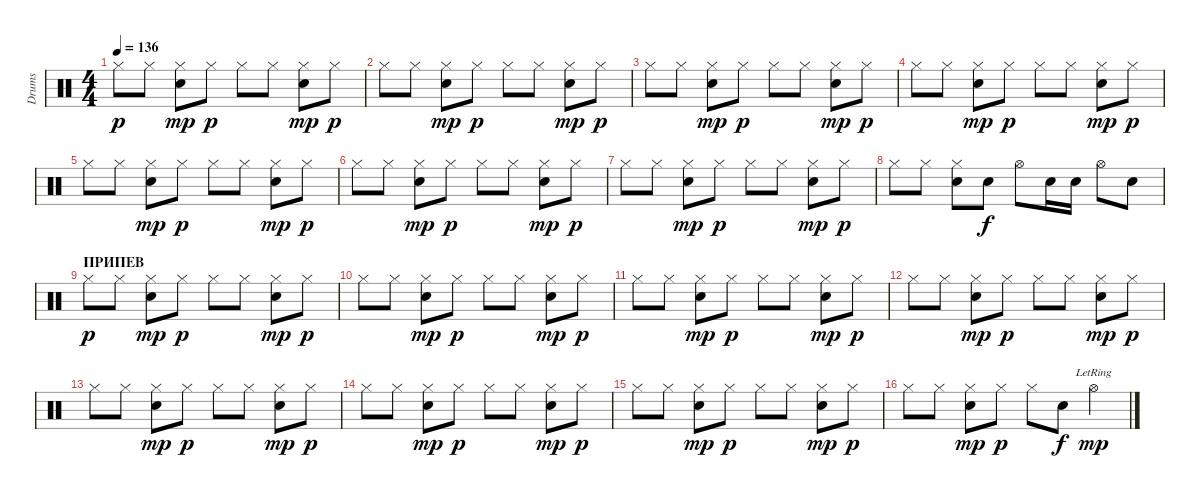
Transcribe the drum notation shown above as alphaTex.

\track ("Drums" "Drums") {instrument percussion}
\staff {score}
\articulation defaults
\ts (4 4)
\tempo 136
\clef neutral
\ks c "Hi-Hat (closed)".8{dy p} "Hi-Hat (closed)".8
("Hi-Hat (closed)" "Electric Snare (hit)").8{dy mp} "Hi-Hat (closed)".8{dy p} "Hi-Hat (closed)".8 "Hi-Hat (closed)".8 ("Hi-Hat (closed)" "Electric Snare (hit)").8{dy mp} "Hi-Hat (closed)".8{dy p} |
"Hi-Hat (closed)".8 "Hi-Hat (closed)".8 ("Hi-Hat (closed)" "Electric Snare (hit)").8{dy mp} "Hi-Hat (closed)".8{dy p} "Hi-Hat (closed)".8 "Hi-Hat (closed)".8 ("Hi-Hat (closed)" "Electric Snare (hit)").8{dy mp} "Hi-Hat (closed)".8{dy p} |
"Hi-Hat (closed)".8 "Hi-Hat (closed)".8 ("Hi-Hat (closed)" "Electric Snare (hit)").8{dy mp} "Hi-Hat (closed)".8{dy p} "Hi-Hat (closed)".8 "Hi-Hat (closed)".8 ("Hi-Hat (closed)" "Electric Snare (hit)").8{dy mp} "Hi-Hat (closed)".8{dy p} |
"Hi-Hat (closed)".8 "Hi-Hat (closed)".8 ("Hi-Hat (closed)" "Electric Snare (hit)").8{dy mp} "Hi-Hat (closed)".8{dy p} "Hi-Hat (closed)".8 "Hi-Hat (closed)".8 ("Hi-Hat (closed)" "Electric Snare (hit)").8{dy mp} "Hi-Hat (closed)".8{dy p} |
"Hi-Hat (closed)".8 "Hi-Hat (closed)".8 ("Hi-Hat (closed)" "Electric Snare (hit)").8{dy mp} "Hi-Hat (closed)".8{dy p} "Hi-Hat (closed)".8 "Hi-Hat (closed)".8 ("Hi-Hat (closed)" "Electric Snare (hit)").8{dy mp} "Hi-Hat (closed)".8{dy p} |
"Hi-Hat (closed)".8 "Hi-Hat (closed)".8 ("Hi-Hat (closed)" "Electric Snare (hit)").8{dy mp} "Hi-Hat (closed)".8{dy p} "Hi-Hat (closed)".8 "Hi-Hat (closed)".8 ("Hi-Hat (closed)" "Electric Snare (hit)").8{dy mp} "Hi-Hat (closed)".8{dy p} |
"Hi-Hat (closed)".8 "Hi-Hat (closed)".8 ("Hi-Hat (closed)" "Electric Snare (hit)").8{dy mp} "Hi-Hat (closed)".8{dy p} "Hi-Hat (closed)".8 "Hi-Hat (closed)".8 ("Hi-Hat (closed)" "Electric Snare (hit)").8{dy mp} "Hi-Hat (closed)".8{dy p} |
"Hi-Hat (closed)".8 "Hi-Hat (closed)".8 ("Hi-Hat (closed)" "Electric Snare (hit)").8 "Electric Snare (hit)".8{dy f} "Hi-Hat (open)".8 "Electric Snare (hit)".16 "Electric Snare (hit)".16 "Hi-Hat (open)".8 "Electric Snare (hit)".8 |
\section ("" "ПРИПЕВ")
"Hi-Hat (closed)".8{dy p} "Hi-Hat (closed)".8 ("Hi-Hat (closed)" "Electric Snare (hit)").8{dy mp} "Hi-Hat (closed)".8{dy p} "Hi-Hat (closed)".8 "Hi-Hat (closed)".8 ("Hi-Hat (closed)" "Electric Snare (hit)").8{dy mp} "Hi-Hat (closed)".8{dy p} |
"Hi-Hat (closed)".8 "Hi-Hat (closed)".8 ("Hi-Hat (closed)" "Electric Snare (hit)").8{dy mp} "Hi-Hat (closed)".8{dy p} "Hi-Hat (closed)".8 "Hi-Hat (closed)".8 ("Hi-Hat (closed)" "Electric Snare (hit)").8{dy mp} "Hi-Hat (closed)".8{dy p} |
"Hi-Hat (closed)".8 "Hi-Hat (closed)".8 ("Hi-Hat (closed)" "Electric Snare (hit)").8{dy mp} "Hi-Hat (closed)".8{dy p} "Hi-Hat (closed)".8 "Hi-Hat (closed)".8 ("Hi-Hat (closed)" "Electric Snare (hit)").8{dy mp} "Hi-Hat (closed)".8{dy p} |
"Hi-Hat (closed)".8 "Hi-Hat (closed)".8 ("Hi-Hat (closed)" "Electric Snare (hit)").8{dy mp} "Hi-Hat (closed)".8{dy p} "Hi-Hat (closed)".8 "Hi-Hat (closed)".8 ("Hi-Hat (closed)" "Electric Snare (hit)").8{dy mp} "Hi-Hat (closed)".8{dy p} |
"Hi-Hat (closed)".8 "Hi-Hat (closed)".8 ("Hi-Hat (closed)" "Electric Snare (hit)").8{dy mp} "Hi-Hat (closed)".8{dy p} "Hi-Hat (closed)".8 "Hi-Hat (closed)".8 ("Hi-Hat (closed)" "Electric Snare (hit)").8{dy mp} "Hi-Hat (closed)".8{dy p} |
"Hi-Hat (closed)".8 "Hi-Hat (closed)".8 ("Hi-Hat (closed)" "Electric Snare (hit)").8{dy mp} "Hi-Hat (closed)".8{dy p} "Hi-Hat (closed)".8 "Hi-Hat (closed)".8 ("Hi-Hat (closed)" "Electric Snare (hit)").8{dy mp} "Hi-Hat (closed)".8{dy p} |
"Hi-Hat (closed)".8 "Hi-Hat (closed)".8 ("Hi-Hat (closed)" "Electric Snare (hit)").8{dy mp} "Hi-Hat (closed)".8{dy p} "Hi-Hat (closed)".8 "Hi-Hat (closed)".8 ("Hi-Hat (closed)" "Electric Snare (hit)").8{dy mp} "Hi-Hat (closed)".8{dy p} |
"Hi-Hat (closed)".8 "Hi-Hat (closed)".8 ("Hi-Hat (closed)" "Electric Snare (hit)").8{dy mp} "Hi-Hat (closed)".8{dy p} "Hi-Hat (closed)".8 "Electric Snare (hit)".8{dy f} "Hi-Hat (open)"{lr}.4{dy mp}
